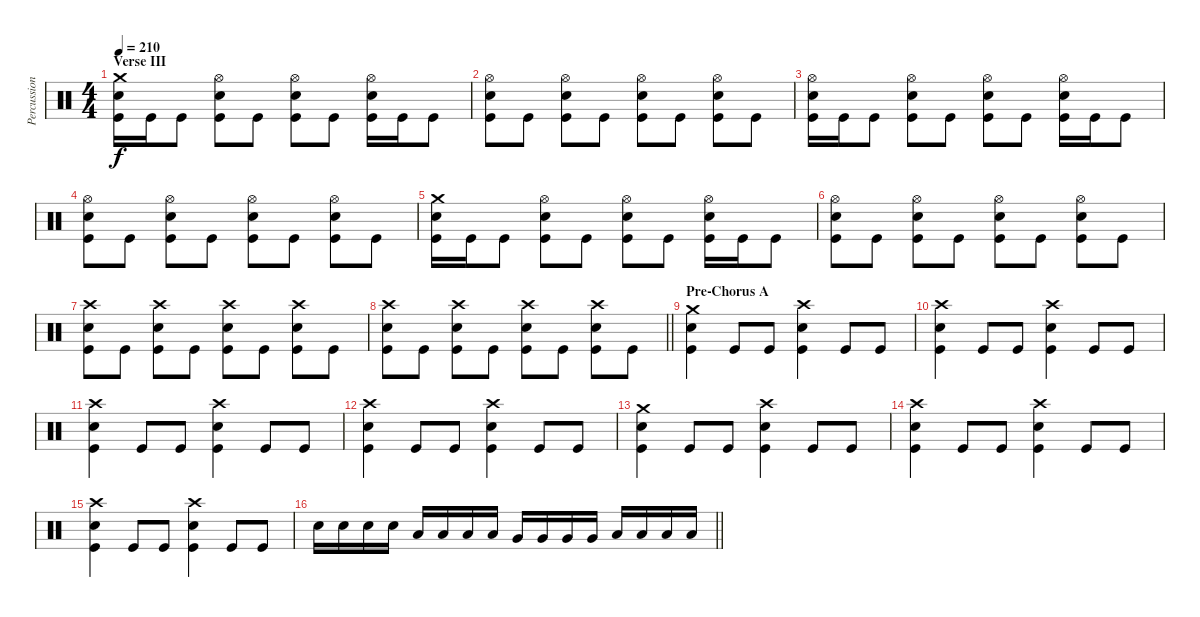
\track ("Percussion" "Percussion") {instrument percussion}
\staff {score}
\articulation defaults
\ts (4 4)
\section ("" "Verse III")
\tempo 210
\clef neutral
\ks c
("Crash medium (hit)" "Electric Snare (hit)" "Kick (hit)").16{dy f} "Kick (hit)".16 "Kick (hit)".8 ("Hi-Hat (open)" "Electric Snare (hit)" "Kick (hit)").8 "Kick (hit)".8 ("Hi-Hat (open)" "Electric Snare (hit)" "Kick (hit)").8 "Kick (hit)".8 ("Hi-Hat (open)" "Electric Snare (hit)" "Kick (hit)").16 "Kick (hit)".16 "Kick (hit)".8 |
("Hi-Hat (open)" "Electric Snare (hit)" "Kick (hit)").8 "Kick (hit)".8 ("Hi-Hat (open)" "Electric Snare (hit)" "Kick (hit)").8 "Kick (hit)".8 ("Hi-Hat (open)" "Electric Snare (hit)" "Kick (hit)").8 "Kick (hit)".8 ("Hi-Hat (open)" "Electric Snare (hit)" "Kick (hit)").8 "Kick (hit)".8 |
("Hi-Hat (open)" "Electric Snare (hit)" "Kick (hit)").16 "Kick (hit)".16 "Kick (hit)".8 ("Hi-Hat (open)" "Electric Snare (hit)" "Kick (hit)").8 "Kick (hit)".8 ("Hi-Hat (open)" "Electric Snare (hit)" "Kick (hit)").8 "Kick (hit)".8 ("Hi-Hat (open)" "Electric Snare (hit)" "Kick (hit)").16 "Kick (hit)".16 "Kick (hit)".8 |
("Hi-Hat (open)" "Electric Snare (hit)" "Kick (hit)").8 "Kick (hit)".8 ("Hi-Hat (open)" "Electric Snare (hit)" "Kick (hit)").8 "Kick (hit)".8 ("Hi-Hat (open)" "Electric Snare (hit)" "Kick (hit)").8 "Kick (hit)".8 ("Hi-Hat (open)" "Electric Snare (hit)" "Kick (hit)").8 "Kick (hit)".8 |
("Crash medium (hit)" "Electric Snare (hit)" "Kick (hit)").16 "Kick (hit)".16 "Kick (hit)".8 ("Hi-Hat (open)" "Electric Snare (hit)" "Kick (hit)").8 "Kick (hit)".8 ("Hi-Hat (open)" "Electric Snare (hit)" "Kick (hit)").8 "Kick (hit)".8 ("Hi-Hat (open)" "Electric Snare (hit)" "Kick (hit)").16 "Kick (hit)".16 "Kick (hit)".8 |
("Hi-Hat (open)" "Electric Snare (hit)" "Kick (hit)").8 "Kick (hit)".8 ("Hi-Hat (open)" "Electric Snare (hit)" "Kick (hit)").8 "Kick (hit)".8 ("Hi-Hat (open)" "Electric Snare (hit)" "Kick (hit)").8 "Kick (hit)".8 ("Hi-Hat (open)" "Electric Snare (hit)" "Kick (hit)").8 "Kick (hit)".8 |
("Crash high (hit)" "Electric Snare (hit)" "Kick (hit)").8 "Kick (hit)".8 ("Crash high (hit)" "Electric Snare (hit)" "Kick (hit)").8 "Kick (hit)".8 ("Crash high (hit)" "Electric Snare (hit)" "Kick (hit)").8 "Kick (hit)".8 ("Crash high (hit)" "Electric Snare (hit)" "Kick (hit)").8 "Kick (hit)".8 |
\barLineRight lightlight
("Crash high (hit)" "Electric Snare (hit)" "Kick (hit)").8 "Kick (hit)".8 ("Crash high (hit)" "Electric Snare (hit)" "Kick (hit)").8 "Kick (hit)".8 ("Crash high (hit)" "Electric Snare (hit)" "Kick (hit)").8 "Kick (hit)".8 ("Crash high (hit)" "Electric Snare (hit)" "Kick (hit)").8 "Kick (hit)".8 |
\section ("" "Pre-Chorus A")
("Crash medium (hit)" "Electric Snare (hit)" "Kick (hit)").4 "Kick (hit)".8 "Kick (hit)".8 ("Crash high (hit)" "Electric Snare (hit)" "Kick (hit)").4 "Kick (hit)".8 "Kick (hit)".8 |
("Crash high (hit)" "Electric Snare (hit)" "Kick (hit)").4 "Kick (hit)".8 "Kick (hit)".8 ("Crash high (hit)" "Electric Snare (hit)" "Kick (hit)").4 "Kick (hit)".8 "Kick (hit)".8 |
("Crash high (hit)" "Electric Snare (hit)" "Kick (hit)").4 "Kick (hit)".8 "Kick (hit)".8 ("Crash high (hit)" "Electric Snare (hit)" "Kick (hit)").4 "Kick (hit)".8 "Kick (hit)".8 |
("Crash high (hit)" "Electric Snare (hit)" "Kick (hit)").4 "Kick (hit)".8 "Kick (hit)".8 ("Crash high (hit)" "Electric Snare (hit)" "Kick (hit)").4 "Kick (hit)".8 "Kick (hit)".8 |
("Crash medium (hit)" "Electric Snare (hit)" "Kick (hit)").4 "Kick (hit)".8 "Kick (hit)".8 ("Crash high (hit)" "Electric Snare (hit)" "Kick (hit)").4 "Kick (hit)".8 "Kick (hit)".8 |
("Crash high (hit)" "Electric Snare (hit)" "Kick (hit)").4 "Kick (hit)".8 "Kick (hit)".8 ("Crash high (hit)" "Electric Snare (hit)" "Kick (hit)").4 "Kick (hit)".8 "Kick (hit)".8 |
("Crash high (hit)" "Electric Snare (hit)" "Kick (hit)").4 "Kick (hit)".8 "Kick (hit)".8 ("Crash high (hit)" "Electric Snare (hit)" "Kick (hit)").4 "Kick (hit)".8 "Kick (hit)".8 |
\barLineRight lightlight "Electric Snare (hit)".16 "Electric Snare (hit)".16 "Electric Snare (hit)".16 "Electric Snare (hit)".16 "Low Tom (hit)".16 "Low Tom (hit)".16 "Low Tom (hit)".16 "Low Tom (hit)".16 "Very Low Tom (hit)".16 "Very Low Tom (hit)".16 "Very Low Tom (hit)".16 "Very Low Tom (hit)".16 "Low Floor Tom (hit)".16 "Low Floor Tom (hit)".16 "Low Floor Tom (hit)".16 "Low Floor Tom (hit)".16
